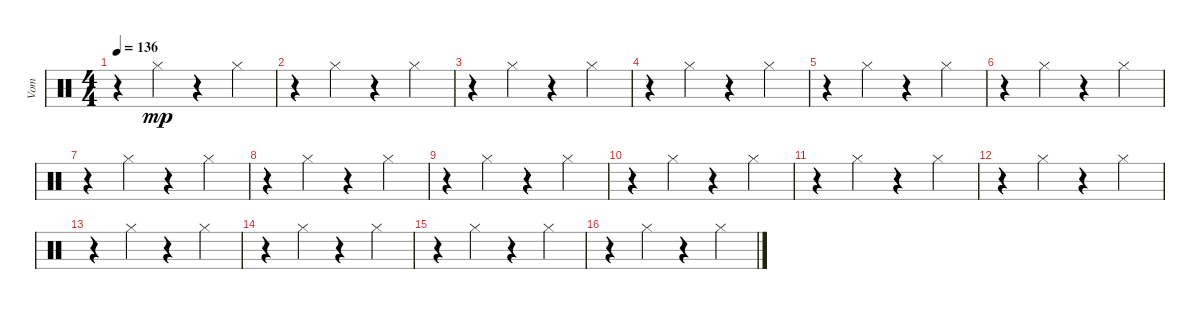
\track ("Vom" "Vom") {instrument percussion}
\staff {score}
\articulation defaults
\ts (4 4)
\tempo 136
\clef neutral
\ks c
r.4{dy mp} "Hi-Hat (closed)".4 r.4 "Hi-Hat (closed)".4 |
r.4 "Hi-Hat (closed)".4 r.4 "Hi-Hat (closed)".4 |
r.4 "Hi-Hat (closed)".4 r.4 "Hi-Hat (closed)".4 |
r.4 "Hi-Hat (closed)".4 r.4 "Hi-Hat (closed)".4 |
r.4 "Hi-Hat (closed)".4 r.4 "Hi-Hat (closed)".4 |
r.4 "Hi-Hat (closed)".4 r.4 "Hi-Hat (closed)".4 |
r.4 "Hi-Hat (closed)".4 r.4 "Hi-Hat (closed)".4 |
r.4 "Hi-Hat (closed)".4 r.4 "Hi-Hat (closed)".4 |
r.4 "Hi-Hat (closed)".4 r.4 "Hi-Hat (closed)".4 |
r.4 "Hi-Hat (closed)".4 r.4 "Hi-Hat (closed)".4 |
r.4 "Hi-Hat (closed)".4 r.4 "Hi-Hat (closed)".4 |
r.4 "Hi-Hat (closed)".4 r.4 "Hi-Hat (closed)".4 |
r.4 "Hi-Hat (closed)".4 r.4 "Hi-Hat (closed)".4 |
r.4 "Hi-Hat (closed)".4 r.4 "Hi-Hat (closed)".4 |
r.4 "Hi-Hat (closed)".4 r.4 "Hi-Hat (closed)".4 |
r.4 "Hi-Hat (closed)".4 r.4 "Hi-Hat (closed)".4
